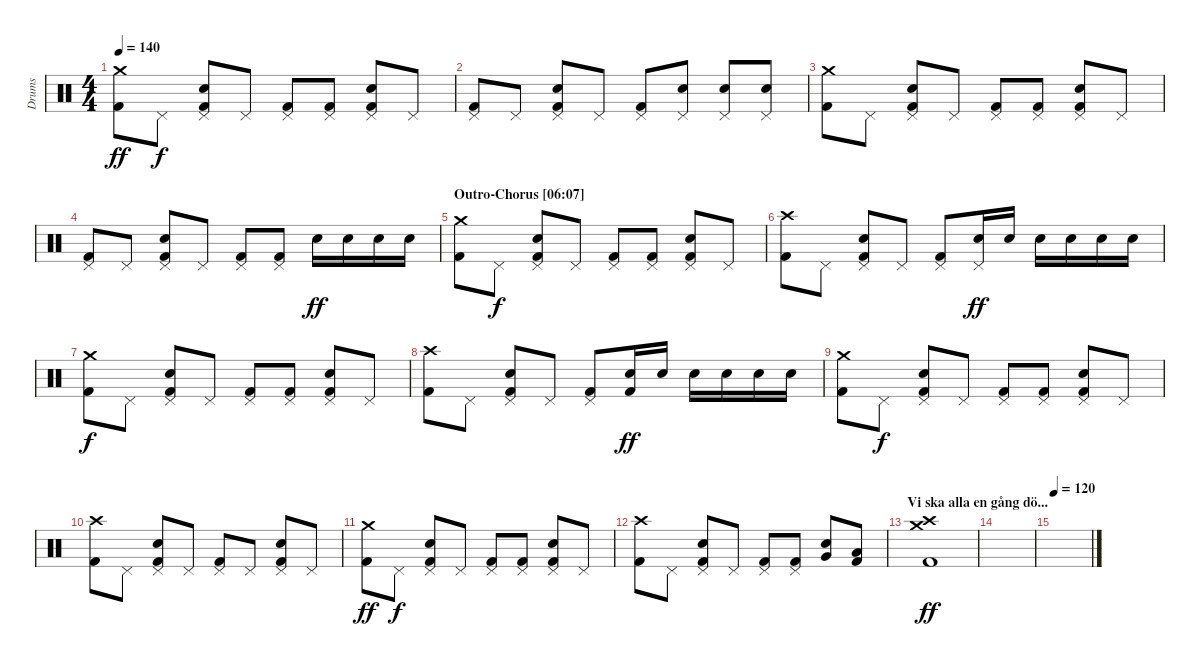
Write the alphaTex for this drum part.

\track ("Drums" "Drums") {instrument percussion}
\staff {score}
\articulation defaults
\ts (4 4)
\section ("" "")
\tempo 140
\clef neutral
\ks c
("Crash medium (hit)" "Kick (hit) 2").8{dy ff} "Pedal Hi-Hat (hit)".8{dy f} ("Pedal Hi-Hat (hit)" "Electric Snare (hit)" "Kick (hit) 2").8 "Pedal Hi-Hat (hit)".8 ("Pedal Hi-Hat (hit)" "Kick (hit) 2").8 ("Pedal Hi-Hat (hit)" "Kick (hit) 2").8 ("Pedal Hi-Hat (hit)" "Electric Snare (hit)" "Kick (hit) 2").8 "Pedal Hi-Hat (hit)".8 |
("Pedal Hi-Hat (hit)" "Kick (hit) 2").8 "Pedal Hi-Hat (hit)".8 ("Pedal Hi-Hat (hit)" "Electric Snare (hit)" "Kick (hit) 2").8 "Pedal Hi-Hat (hit)".8 ("Pedal Hi-Hat (hit)" "Kick (hit) 2").8 ("Pedal Hi-Hat (hit)" "Electric Snare (hit)").8 ("Pedal Hi-Hat (hit)" "Electric Snare (hit)").8 ("Pedal Hi-Hat (hit)" "Electric Snare (hit)").8 |
("Crash medium (hit)" "Kick (hit) 2").8 "Pedal Hi-Hat (hit)".8 ("Pedal Hi-Hat (hit)" "Electric Snare (hit)" "Kick (hit) 2").8 "Pedal Hi-Hat (hit)".8 ("Pedal Hi-Hat (hit)" "Kick (hit) 2").8 ("Pedal Hi-Hat (hit)" "Kick (hit) 2").8 ("Pedal Hi-Hat (hit)" "Electric Snare (hit)" "Kick (hit) 2").8 "Pedal Hi-Hat (hit)".8 |
("Pedal Hi-Hat (hit)" "Kick (hit) 2").8 "Pedal Hi-Hat (hit)".8 ("Pedal Hi-Hat (hit)" "Electric Snare (hit)" "Kick (hit) 2").8 "Pedal Hi-Hat (hit)".8 ("Pedal Hi-Hat (hit)" "Kick (hit) 2").8 ("Pedal Hi-Hat (hit)" "Kick (hit) 2").8 "Electric Snare (hit)".16{dy ff} "Electric Snare (hit)".16 "Electric Snare (hit)".16 "Electric Snare (hit)".16 |
\section ("" "Outro-Chorus [06:07]")
("Crash medium (hit)" "Kick (hit) 2").8 "Pedal Hi-Hat (hit)".8{dy f} ("Pedal Hi-Hat (hit)" "Electric Snare (hit)" "Kick (hit) 2").8 "Pedal Hi-Hat (hit)".8 ("Pedal Hi-Hat (hit)" "Kick (hit) 2").8 ("Pedal Hi-Hat (hit)" "Kick (hit) 2").8 ("Pedal Hi-Hat (hit)" "Electric Snare (hit)" "Kick (hit) 2").8 "Pedal Hi-Hat (hit)".8 |
("Crash high (hit)" "Kick (hit) 2").8 "Pedal Hi-Hat (hit)".8 ("Pedal Hi-Hat (hit)" "Electric Snare (hit)" "Kick (hit) 2").8 "Pedal Hi-Hat (hit)".8 ("Pedal Hi-Hat (hit)" "Kick (hit) 2").8 ("Pedal Hi-Hat (hit)" "Electric Snare (hit)").16{dy ff} "Electric Snare (hit)".16 "Electric Snare (hit)".16 "Electric Snare (hit)".16 "Electric Snare (hit)".16 "Electric Snare (hit)".16 |
("Crash medium (hit)" "Kick (hit) 2").8{dy f} "Pedal Hi-Hat (hit)".8 ("Pedal Hi-Hat (hit)" "Electric Snare (hit)" "Kick (hit) 2").8 "Pedal Hi-Hat (hit)".8 ("Pedal Hi-Hat (hit)" "Kick (hit) 2").8 ("Pedal Hi-Hat (hit)" "Kick (hit) 2").8 ("Pedal Hi-Hat (hit)" "Electric Snare (hit)" "Kick (hit) 2").8 "Pedal Hi-Hat (hit)".8 |
("Crash high (hit)" "Kick (hit) 2").8 "Pedal Hi-Hat (hit)".8 ("Pedal Hi-Hat (hit)" "Electric Snare (hit)" "Kick (hit) 2").8 "Pedal Hi-Hat (hit)".8 ("Pedal Hi-Hat (hit)" "Kick (hit) 2").8 ("Electric Snare (hit)" "Kick (hit) 2").16{dy ff} "Electric Snare (hit)".16 "Electric Snare (hit)".16 "Electric Snare (hit)".16 "Electric Snare (hit)".16 "Electric Snare (hit)".16 |
("Crash medium (hit)" "Kick (hit) 2").8 "Pedal Hi-Hat (hit)".8{dy f} ("Pedal Hi-Hat (hit)" "Electric Snare (hit)" "Kick (hit) 2").8 "Pedal Hi-Hat (hit)".8 ("Pedal Hi-Hat (hit)" "Kick (hit) 2").8 ("Pedal Hi-Hat (hit)" "Kick (hit) 2").8 ("Pedal Hi-Hat (hit)" "Electric Snare (hit)" "Kick (hit) 2").8 "Pedal Hi-Hat (hit)".8 |
("Crash high (hit)" "Kick (hit) 2").8 "Pedal Hi-Hat (hit)".8 ("Pedal Hi-Hat (hit)" "Electric Snare (hit)" "Kick (hit) 2").8 "Pedal Hi-Hat (hit)".8 ("Pedal Hi-Hat (hit)" "Kick (hit) 2").8 "Pedal Hi-Hat (hit)".8 ("Pedal Hi-Hat (hit)" "Electric Snare (hit)" "Kick (hit) 2").8 "Pedal Hi-Hat (hit)".8 |
("Crash medium (hit)" "Kick (hit) 2").8{dy ff} "Pedal Hi-Hat (hit)".8{dy f} ("Pedal Hi-Hat (hit)" "Electric Snare (hit)" "Kick (hit) 2").8 "Pedal Hi-Hat (hit)".8 ("Pedal Hi-Hat (hit)" "Kick (hit) 2").8 ("Pedal Hi-Hat (hit)" "Kick (hit) 2").8 ("Pedal Hi-Hat (hit)" "Electric Snare (hit)" "Kick (hit) 2").8 "Pedal Hi-Hat (hit)".8 |
("Crash high (hit)" "Kick (hit) 2").8 "Pedal Hi-Hat (hit)".8 ("Pedal Hi-Hat (hit)" "Electric Snare (hit)" "Kick (hit) 2").8 "Pedal Hi-Hat (hit)".8 ("Pedal Hi-Hat (hit)" "Kick (hit) 2").8 ("Pedal Hi-Hat (hit)" "Kick (hit) 2").8 ("Very Low Tom (hit)" "Electric Snare (hit)").8 ("Low Floor Tom (hit)" "Kick (hit) 2").8 |
\section ("" "Vi ska alla en gång dö...")
("Crash medium (hit)" "Crash high (hit)" "Kick (hit) 2").1{dy ff} |
|
\tempo 120
